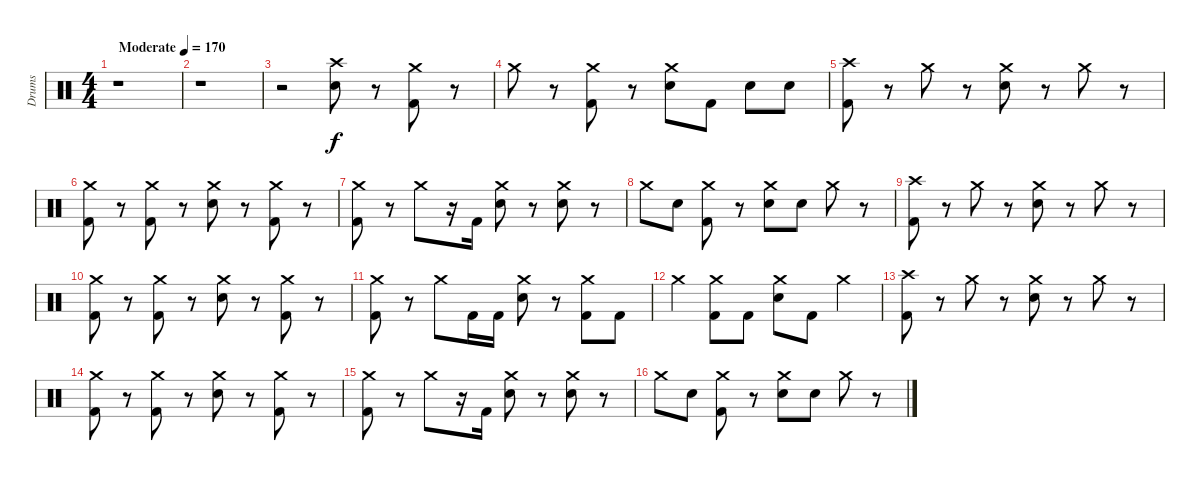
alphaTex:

\track ("Drums" "Drums") {instrument percussion}
\staff
\articulation defaults
\ts (4 4)
\tempo (170 "Moderate")
\clef neutral
\ks c
r.1{dy f} |
r.1 |
r.2 ("Crash high (hit)" "Electric Snare (hit)").8 r.8 ("Crash medium (hit)" "Kick (hit) 2").8 r.8 |
"Crash medium (hit)".8 r.8 ("Crash medium (hit)" "Kick (hit) 2").8 r.8 ("Crash medium (hit)" "Electric Snare (hit)").8 "Kick (hit) 2".8 "Electric Snare (hit)".8 "Electric Snare (hit)".8 |
("Crash high (hit)" "Kick (hit) 2").8 r.8 "Crash medium (hit)".8 r.8 ("Crash medium (hit)" "Electric Snare (hit)").8 r.8 "Crash medium (hit)".8 r.8 |
("Crash medium (hit)" "Kick (hit) 2").8 r.8 ("Crash medium (hit)" "Kick (hit) 2").8 r.8 ("Crash medium (hit)" "Electric Snare (hit)").8 r.8 ("Crash medium (hit)" "Kick (hit) 2").8 r.8 |
("Crash medium (hit)" "Kick (hit) 2").8 r.8 "Crash medium (hit)".8 r.16 "Kick (hit) 2".16 ("Crash medium (hit)" "Electric Snare (hit)").8 r.8 ("Crash medium (hit)" "Electric Snare (hit)").8 r.8 |
"Crash medium (hit)".8 "Electric Snare (hit)".8 ("Crash medium (hit)" "Kick (hit) 2").8 r.8 ("Crash medium (hit)" "Electric Snare (hit)").8 "Electric Snare (hit)".8 "Crash medium (hit)".8 r.8 |
("Crash high (hit)" "Kick (hit) 2").8 r.8 "Crash medium (hit)".8 r.8 ("Crash medium (hit)" "Electric Snare (hit)").8 r.8 "Crash medium (hit)".8 r.8 |
("Crash medium (hit)" "Kick (hit) 2").8 r.8 ("Crash medium (hit)" "Kick (hit) 2").8 r.8 ("Crash medium (hit)" "Electric Snare (hit)").8 r.8 ("Crash medium (hit)" "Kick (hit) 2").8 r.8 |
("Crash medium (hit)" "Kick (hit) 2").8 r.8 "Crash medium (hit)".8 "Kick (hit) 2".16 "Kick (hit) 2".16 ("Crash medium (hit)" "Electric Snare (hit)").8 r.8 ("Crash medium (hit)" "Kick (hit) 2").8 "Kick (hit) 2".8 |
"Crash medium (hit)".4 ("Crash medium (hit)" "Kick (hit) 2").8 "Kick (hit) 2".8 ("Crash medium (hit)" "Electric Snare (hit)").8 "Kick (hit) 2".8 "Crash medium (hit)".4 |
("Crash high (hit)" "Kick (hit) 2").8 r.8 "Crash medium (hit)".8 r.8 ("Crash medium (hit)" "Electric Snare (hit)").8 r.8 "Crash medium (hit)".8 r.8 |
("Crash medium (hit)" "Kick (hit) 2").8 r.8 ("Crash medium (hit)" "Kick (hit) 2").8 r.8 ("Crash medium (hit)" "Electric Snare (hit)").8 r.8 ("Crash medium (hit)" "Kick (hit) 2").8 r.8 |
("Crash medium (hit)" "Kick (hit) 2").8 r.8 "Crash medium (hit)".8 r.16 "Kick (hit) 2".16 ("Crash medium (hit)" "Electric Snare (hit)").8 r.8 ("Crash medium (hit)" "Electric Snare (hit)").8 r.8 |
"Crash medium (hit)".8 "Electric Snare (hit)".8 ("Crash medium (hit)" "Kick (hit) 2").8 r.8 ("Crash medium (hit)" "Electric Snare (hit)").8 "Electric Snare (hit)".8 "Crash medium (hit)".8 r.8
